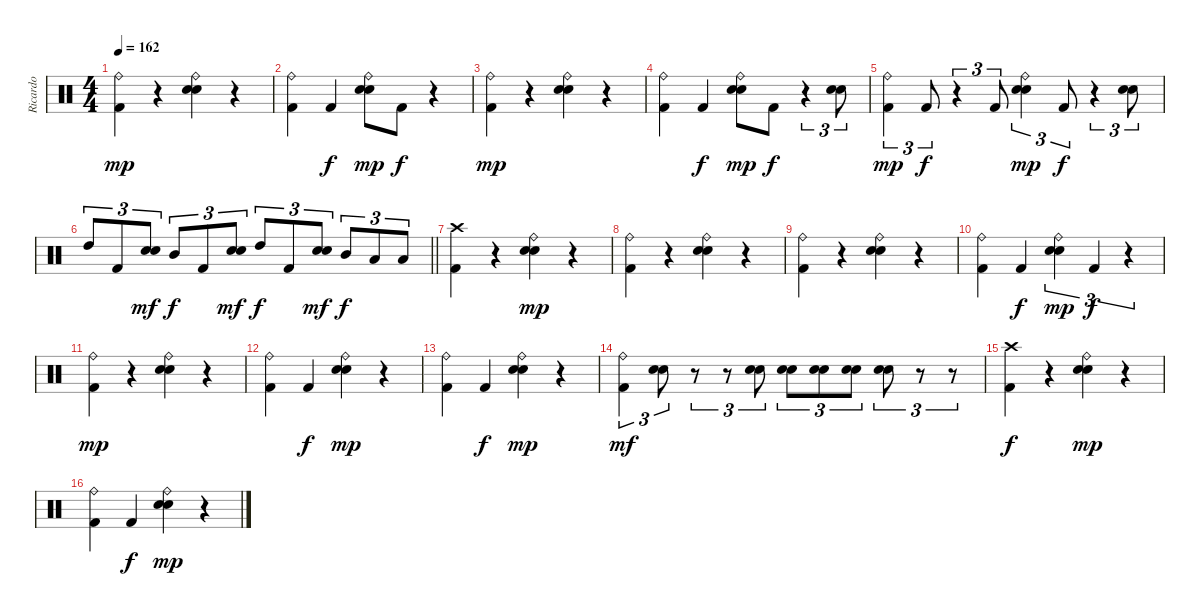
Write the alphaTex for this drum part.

\track ("Ricardo" "Ricardo") {instrument percussion}
\staff {score}
\articulation defaults
\ts (4 4)
\tempo 162
\clef neutral
\ks c
("Ride (bell)" "Kick (hit) 2").4{dy mp} r.4 ("Ride (bell)" "Electric Snare (hit)" "Snare (hit) 2").4 r.4 |
("Ride (bell)" "Kick (hit) 2").4 "Kick (hit) 2".4{dy f} ("Ride (bell)" "Electric Snare (hit)" "Snare (hit) 2").8{dy mp} "Kick (hit) 2".8{dy f} r.4 |
("Ride (bell)" "Kick (hit) 2").4{dy mp} r.4 ("Ride (bell)" "Electric Snare (hit)" "Snare (hit) 2").4 r.4 |
("Ride (bell)" "Kick (hit) 2").4 "Kick (hit) 2".4{dy f} ("Ride (bell)" "Electric Snare (hit)" "Snare (hit) 2").8{dy mp} "Kick (hit) 2".8{dy f} r.4{tu (3 2)} ("Electric Snare (hit)" "Snare (hit) 2").8{tu (3 2)} |
("Ride (bell)" "Kick (hit) 2").4{tu (3 2) dy mp} "Kick (hit) 2".8{tu (3 2) dy f} r.4{tu (3 2)} "Kick (hit) 2".8{tu (3 2)} ("Ride (bell)" "Electric Snare (hit)" "Snare (hit) 2").4{tu (3 2) dy mp} "Kick (hit) 2".8{tu (3 2) dy f} r.4{tu (3 2)} ("Electric Snare (hit)" "Snare (hit) 2").8{tu (3 2)} |
\barLineRight lightlight "High Tom (hit)".8{tu (3 2)} "Kick (hit) 2".8{tu (3 2)}
("Electric Snare (hit)" "Snare (hit) 2").8{tu (3 2) dy mf} "Mid Tom (hit)".8{tu (3 2) dy f} "Kick (hit) 2".8{tu (3 2)} ("Electric Snare (hit)" "Snare (hit) 2").8{tu (3 2) dy mf} "High Tom (hit)".8{tu (3 2) dy f} "Kick (hit) 2".8{tu (3 2)} ("Electric Snare (hit)" "Snare (hit) 2").8{tu (3 2) dy mf} "Mid Tom (hit)".8{tu (3 2) dy f} "Low Tom (hit)".8{tu (3 2)} "Low Tom (hit)".8{tu (3 2)} |
("Crash high (hit)" "Kick (hit) 2").4 r.4 ("Ride (bell)" "Electric Snare (hit)" "Snare (hit) 2").4{dy mp} r.4 |
("Ride (bell)" "Kick (hit) 2").4 r.4 ("Ride (bell)" "Electric Snare (hit)" "Snare (hit) 2").4 r.4 |
("Ride (bell)" "Kick (hit) 2").4 r.4 ("Ride (bell)" "Electric Snare (hit)" "Snare (hit) 2").4 r.4 |
("Ride (bell)" "Kick (hit) 2").4 "Kick (hit) 2".4{dy f} ("Ride (bell)" "Electric Snare (hit)" "Snare (hit) 2").4{tu (3 2) dy mp} "Kick (hit) 2".4{tu (3 2) dy f} r.4{tu (3 2)} |
("Ride (bell)" "Kick (hit) 2").4{dy mp} r.4 ("Ride (bell)" "Electric Snare (hit)" "Snare (hit) 2").4 r.4 |
("Ride (bell)" "Kick (hit) 2").4 "Kick (hit) 2".4{dy f} ("Ride (bell)" "Electric Snare (hit)" "Snare (hit) 2").4{dy mp} r.4 |
("Ride (bell)" "Kick (hit) 2").4 "Kick (hit) 2".4{dy f} ("Ride (bell)" "Electric Snare (hit)" "Snare (hit) 2").4{dy mp} r.4 |
("Ride (bell)" "Kick (hit) 2").4{tu (3 2) dy mf} ("Electric Snare (hit)" "Snare (hit) 2").8{tu (3 2)} r.8{tu (3 2)} r.8{tu (3 2)} ("Electric Snare (hit)" "Snare (hit) 2").8{tu (3 2)} ("Electric Snare (hit)" "Snare (hit) 2").8{tu (3 2)} ("Electric Snare (hit)" "Snare (hit) 2").8{tu (3 2)} ("Electric Snare (hit)" "Snare (hit) 2").8{tu (3 2)} ("Electric Snare (hit)" "Snare (hit) 2").8{tu (3 2)} r.8{tu (3 2)} r.8{tu (3 2)} |
("Crash high (hit)" "Kick (hit) 2").4{dy f} r.4 ("Ride (bell)" "Electric Snare (hit)" "Snare (hit) 2").4{dy mp} r.4 |
("Ride (bell)" "Kick (hit) 2").4 "Kick (hit) 2".4{dy f} ("Ride (bell)" "Electric Snare (hit)" "Snare (hit) 2").4{dy mp} r.4
